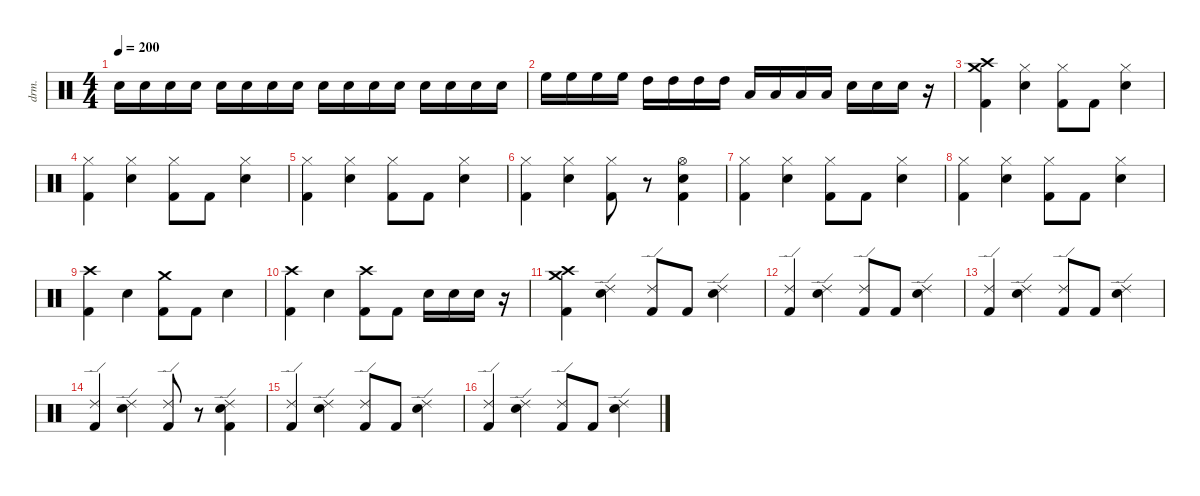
\defaultSystemsLayout 4
\hideDynamics
\bracketExtendMode nobrackets
\track ("Drums" "drm.") {instrument percussion}
\staff {score}
\articulation defaults
\ts (4 4)
\tempo 200
\clef neutral
\ks c "Snare (hit) 2".16{dy mf} "Snare (hit) 2".16 "Snare (hit) 2".16 "Snare (hit) 2".16 "Snare (hit) 2".16{dy f} "Snare (hit) 2".16 "Snare (hit) 2".16 "Snare (hit) 2".16 "Snare (hit) 2".16 "Snare (hit) 2".16 "Snare (hit) 2".16 "Snare (hit) 2".16 "Snare (hit) 2".16{dy fff} "Snare (hit) 2".16 "Snare (hit) 2".16 "Snare (hit) 2".16
|
"High Floor Tom (hit)".16{dy f} "High Floor Tom (hit)".16 "High Floor Tom (hit)".16{dy ff} "High Floor Tom (hit)".16 "High Tom (hit)".16 "High Tom (hit)".16 "High Tom (hit)".16{dy fff} "High Tom (hit)".16 "Low Tom (hit)".16{dy ff} "Low Tom (hit)".16 "Low Tom (hit)".16{dy fff} "Low Tom (hit)".16 "Snare (hit) 2".16 "Snare (hit) 2".16 "Snare (hit) 2".16 r.16 |
("Crash high (hit)" "Crash medium (hit)" "Kick (hit) 2").4{dy mf} ("Hi-Hat (closed)" "Snare (hit) 2").4{dy f} ("Hi-Hat (closed)" "Kick (hit) 2").8 "Kick (hit) 2".8 ("Hi-Hat (closed)" "Snare (hit) 2").4 |
("Hi-Hat (closed)" "Kick (hit) 2").4 ("Hi-Hat (closed)" "Snare (hit) 2").4 ("Hi-Hat (closed)" "Kick (hit) 2").8 "Kick (hit) 2".8 ("Hi-Hat (closed)" "Snare (hit) 2").4 |
("Hi-Hat (closed)" "Kick (hit) 2").4 ("Hi-Hat (closed)" "Snare (hit) 2").4 ("Hi-Hat (closed)" "Kick (hit) 2").8 "Kick (hit) 2".8 ("Hi-Hat (closed)" "Snare (hit) 2").4 |
("Hi-Hat (closed)" "Kick (hit) 2").4 ("Hi-Hat (closed)" "Snare (hit) 2").4 ("Hi-Hat (closed)" "Kick (hit) 2").8 r.8 ("Hi-Hat (open)" "Snare (hit) 2" "Kick (hit) 2").4 |
("Hi-Hat (closed)" "Kick (hit) 2").4 ("Hi-Hat (closed)" "Snare (hit) 2").4 ("Hi-Hat (closed)" "Kick (hit) 2").8 "Kick (hit) 2".8 ("Hi-Hat (closed)" "Snare (hit) 2").4 |
("Hi-Hat (closed)" "Kick (hit) 2").4 ("Hi-Hat (closed)" "Snare (hit) 2").4 ("Hi-Hat (closed)" "Kick (hit) 2").8 "Kick (hit) 2".8 ("Hi-Hat (closed)" "Snare (hit) 2").4 |
("Crash high (hit)" "Kick (hit) 2").4 "Snare (hit) 2".4 ("Crash medium (hit)" "Kick (hit) 2").8 "Kick (hit) 2".8 "Snare (hit) 2".4 |
("Crash high (hit)" "Kick (hit) 2").4 "Snare (hit) 2".4 ("Crash high (hit)" "Kick (hit) 2").8 "Kick (hit) 2".8 "Snare (hit) 2".16{dy ff} "Snare (hit) 2".16 "Snare (hit) 2".16 r.16 |
("Crash high (hit)" "Crash medium (hit)" "Kick (hit) 2").4 ("Ride (edge) 2" "Snare (hit) 2").4{dy f} ("Ride (edge) 2" "Kick (hit) 2").8 "Kick (hit) 2".8 ("Ride (edge) 2" "Snare (hit) 2").4 |
("Ride (edge) 2" "Kick (hit) 2").4 ("Ride (edge) 2" "Snare (hit) 2").4 ("Ride (edge) 2" "Kick (hit) 2").8 "Kick (hit) 2".8 ("Ride (edge) 2" "Snare (hit) 2").4 |
("Ride (edge) 2" "Kick (hit) 2").4 ("Ride (edge) 2" "Snare (hit) 2").4 ("Ride (edge) 2" "Kick (hit) 2").8 "Kick (hit) 2".8 ("Ride (edge) 2" "Snare (hit) 2").4 |
("Ride (edge) 2" "Kick (hit) 2").4 ("Ride (edge) 2" "Snare (hit) 2").4 ("Ride (edge) 2" "Kick (hit) 2").8 r.8 ("Ride (edge) 2" "Snare (hit) 2" "Kick (hit) 2").4 |
("Ride (edge) 2" "Kick (hit) 2").4 ("Ride (edge) 2" "Snare (hit) 2").4 ("Ride (edge) 2" "Kick (hit) 2").8 "Kick (hit) 2".8 ("Ride (edge) 2" "Snare (hit) 2").4 |
("Ride (edge) 2" "Kick (hit) 2").4 ("Ride (edge) 2" "Snare (hit) 2").4 ("Ride (edge) 2" "Kick (hit) 2").8 "Kick (hit) 2".8 ("Ride (edge) 2" "Snare (hit) 2").4
